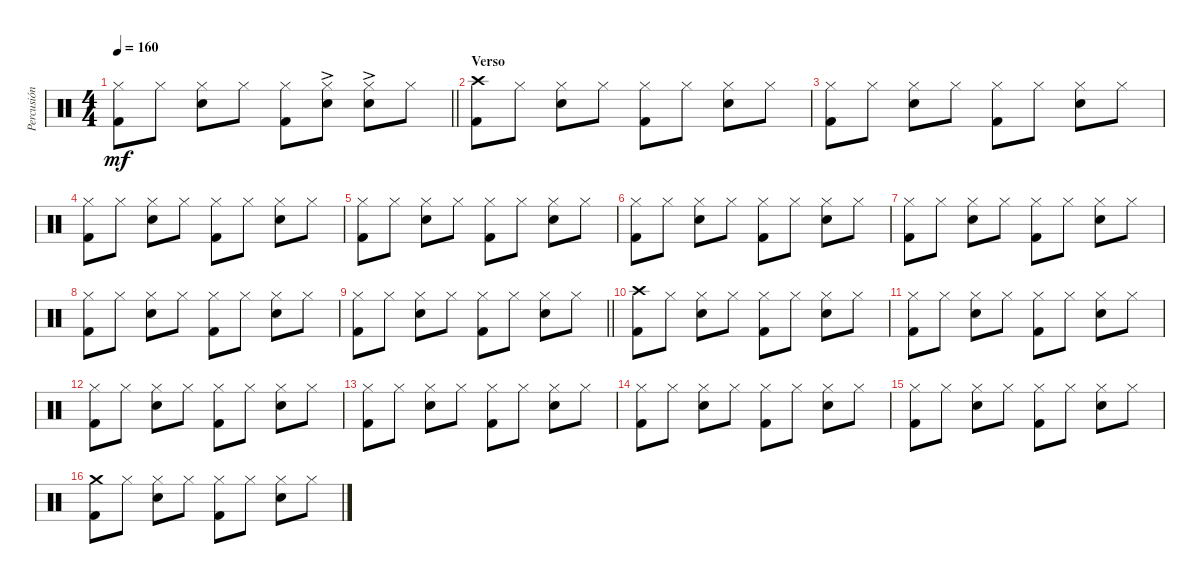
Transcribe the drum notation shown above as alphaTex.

\track ("Percusión" "Percusión") {instrument percussion}
\staff {score}
\articulation defaults
\ts (4 4)
\tempo 160
\clef neutral
\barLineRight lightlight
\ks c
("Hi-Hat (closed)" "Kick (hit) 2").8{dy mf} "Hi-Hat (closed)".8 ("Hi-Hat (closed)" "Electric Snare (hit)").8 "Hi-Hat (closed)".8 ("Hi-Hat (closed)" "Kick (hit) 2").8 ("Hi-Hat (closed)" "Electric Snare (hit)"{ac}).8 ("Hi-Hat (closed)" "Electric Snare (hit)"{ac}).8 "Hi-Hat (closed)".8 |
\section ("" "Verso")
("Crash high (hit)" "Kick (hit) 2").8 "Hi-Hat (closed)".8 ("Hi-Hat (closed)" "Electric Snare (hit)").8 "Hi-Hat (closed)".8 ("Hi-Hat (closed)" "Kick (hit) 2").8 "Hi-Hat (closed)".8 ("Hi-Hat (closed)" "Electric Snare (hit)").8 "Hi-Hat (closed)".8 |
("Hi-Hat (closed)" "Kick (hit) 2").8 "Hi-Hat (closed)".8 ("Hi-Hat (closed)" "Electric Snare (hit)").8 "Hi-Hat (closed)".8 ("Hi-Hat (closed)" "Kick (hit) 2").8 "Hi-Hat (closed)".8 ("Hi-Hat (closed)" "Electric Snare (hit)").8 "Hi-Hat (closed)".8 |
("Hi-Hat (closed)" "Kick (hit) 2").8 "Hi-Hat (closed)".8 ("Hi-Hat (closed)" "Electric Snare (hit)").8 "Hi-Hat (closed)".8 ("Hi-Hat (closed)" "Kick (hit) 2").8 "Hi-Hat (closed)".8 ("Hi-Hat (closed)" "Electric Snare (hit)").8 "Hi-Hat (closed)".8 |
("Hi-Hat (closed)" "Kick (hit) 2").8 "Hi-Hat (closed)".8 ("Hi-Hat (closed)" "Electric Snare (hit)").8 "Hi-Hat (closed)".8 ("Hi-Hat (closed)" "Kick (hit) 2").8 "Hi-Hat (closed)".8 ("Hi-Hat (closed)" "Electric Snare (hit)").8 "Hi-Hat (closed)".8 |
("Hi-Hat (closed)" "Kick (hit) 2").8 "Hi-Hat (closed)".8 ("Hi-Hat (closed)" "Electric Snare (hit)").8 "Hi-Hat (closed)".8 ("Hi-Hat (closed)" "Kick (hit) 2").8 "Hi-Hat (closed)".8 ("Hi-Hat (closed)" "Electric Snare (hit)").8 "Hi-Hat (closed)".8 |
("Hi-Hat (closed)" "Kick (hit) 2").8 "Hi-Hat (closed)".8 ("Hi-Hat (closed)" "Electric Snare (hit)").8 "Hi-Hat (closed)".8 ("Hi-Hat (closed)" "Kick (hit) 2").8 "Hi-Hat (closed)".8 ("Hi-Hat (closed)" "Electric Snare (hit)").8 "Hi-Hat (closed)".8 |
("Hi-Hat (closed)" "Kick (hit) 2").8 "Hi-Hat (closed)".8 ("Hi-Hat (closed)" "Electric Snare (hit)").8 "Hi-Hat (closed)".8 ("Hi-Hat (closed)" "Kick (hit) 2").8 "Hi-Hat (closed)".8 ("Hi-Hat (closed)" "Electric Snare (hit)").8 "Hi-Hat (closed)".8 |
\barLineRight lightlight
("Hi-Hat (closed)" "Kick (hit) 2").8 "Hi-Hat (closed)".8 ("Hi-Hat (closed)" "Electric Snare (hit)").8 "Hi-Hat (closed)".8 ("Hi-Hat (closed)" "Kick (hit) 2").8 "Hi-Hat (closed)".8 ("Hi-Hat (closed)" "Electric Snare (hit)").8 "Hi-Hat (closed)".8 |
("Crash high (hit)" "Kick (hit) 2").8 "Hi-Hat (closed)".8 ("Hi-Hat (closed)" "Electric Snare (hit)").8 "Hi-Hat (closed)".8 ("Hi-Hat (closed)" "Kick (hit) 2").8 "Hi-Hat (closed)".8 ("Hi-Hat (closed)" "Electric Snare (hit)").8 "Hi-Hat (closed)".8 |
("Hi-Hat (closed)" "Kick (hit) 2").8 "Hi-Hat (closed)".8 ("Hi-Hat (closed)" "Electric Snare (hit)").8 "Hi-Hat (closed)".8 ("Hi-Hat (closed)" "Kick (hit) 2").8 "Hi-Hat (closed)".8 ("Hi-Hat (closed)" "Electric Snare (hit)").8 "Hi-Hat (closed)".8 |
("Hi-Hat (closed)" "Kick (hit) 2").8 "Hi-Hat (closed)".8 ("Hi-Hat (closed)" "Electric Snare (hit)").8 "Hi-Hat (closed)".8 ("Hi-Hat (closed)" "Kick (hit) 2").8 "Hi-Hat (closed)".8 ("Hi-Hat (closed)" "Electric Snare (hit)").8 "Hi-Hat (closed)".8 |
("Hi-Hat (closed)" "Kick (hit) 2").8 "Hi-Hat (closed)".8 ("Hi-Hat (closed)" "Electric Snare (hit)").8 "Hi-Hat (closed)".8 ("Hi-Hat (closed)" "Kick (hit) 2").8 "Hi-Hat (closed)".8 ("Hi-Hat (closed)" "Electric Snare (hit)").8 "Hi-Hat (closed)".8 |
("Hi-Hat (closed)" "Kick (hit) 2").8 "Hi-Hat (closed)".8 ("Hi-Hat (closed)" "Electric Snare (hit)").8 "Hi-Hat (closed)".8 ("Hi-Hat (closed)" "Kick (hit) 2").8 "Hi-Hat (closed)".8 ("Hi-Hat (closed)" "Electric Snare (hit)").8 "Hi-Hat (closed)".8 |
("Hi-Hat (closed)" "Kick (hit) 2").8 "Hi-Hat (closed)".8 ("Hi-Hat (closed)" "Electric Snare (hit)").8 "Hi-Hat (closed)".8 ("Hi-Hat (closed)" "Kick (hit) 2").8 "Hi-Hat (closed)".8 ("Hi-Hat (closed)" "Electric Snare (hit)").8 "Hi-Hat (closed)".8 |
("Crash medium (hit)" "Kick (hit) 2").8 "Hi-Hat (closed)".8 ("Hi-Hat (closed)" "Electric Snare (hit)").8 "Hi-Hat (closed)".8 ("Hi-Hat (closed)" "Kick (hit) 2").8 "Hi-Hat (closed)".8 ("Hi-Hat (closed)" "Electric Snare (hit)").8 "Hi-Hat (closed)".8
